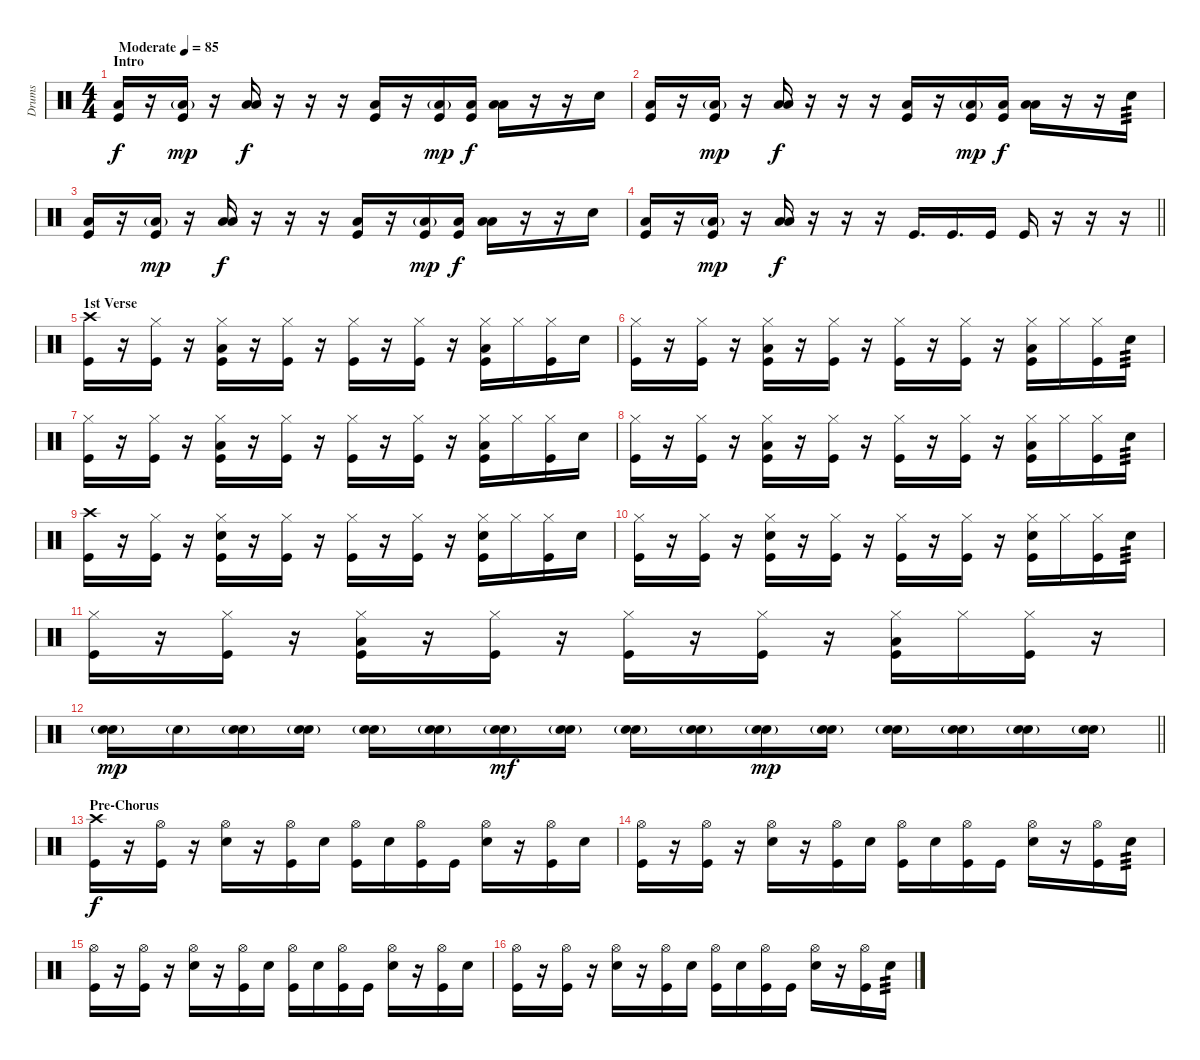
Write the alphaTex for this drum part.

\track ("Drums" "Drums") {instrument percussion}
\staff {score}
\articulation defaults
\ts (4 4)
\section ("" "Intro")
\tempo (85 "Moderate")
\clef neutral
\ks c
("Low Floor Tom (hit)" "Kick (hit)").16{dy f} r.16 ("Low Floor Tom (hit)"{g} "Kick (hit)").16{dy mp} r.16 ("Low Tom (hit)" "Low Floor Tom (hit)").16{dy f} r.16 r.16 r.16 ("Low Floor Tom (hit)" "Kick (hit)").16 r.16 ("Low Floor Tom (hit)"{g} "Kick (hit)").16{dy mp} ("Low Floor Tom (hit)" "Kick (hit)").16{dy f} ("Low Tom (hit)" "Low Floor Tom (hit)").16 r.16 r.16 "Snare (hit) 2".16 |
("Low Floor Tom (hit)" "Kick (hit)").16 r.16 ("Low Floor Tom (hit)"{g} "Kick (hit)").16{dy mp} r.16 ("Low Tom (hit)" "Low Floor Tom (hit)").16{dy f} r.16 r.16 r.16 ("Low Floor Tom (hit)" "Kick (hit)").16 r.16 ("Low Floor Tom (hit)"{g} "Kick (hit)").16{dy mp} ("Low Floor Tom (hit)" "Kick (hit)").16{dy f} ("Low Tom (hit)" "Low Floor Tom (hit)").16 r.16 r.16 "Snare (hit) 2".16{tp 3} |
("Low Floor Tom (hit)" "Kick (hit)").16 r.16 ("Low Floor Tom (hit)"{g} "Kick (hit)").16{dy mp} r.16 ("Low Tom (hit)" "Low Floor Tom (hit)").16{dy f} r.16 r.16 r.16 ("Low Floor Tom (hit)" "Kick (hit)").16 r.16 ("Low Floor Tom (hit)"{g} "Kick (hit)").16{dy mp} ("Low Floor Tom (hit)" "Kick (hit)").16{dy f} ("Low Tom (hit)" "Low Floor Tom (hit)").16 r.16 r.16 "Snare (hit) 2".16 |
\barLineRight lightlight
("Low Floor Tom (hit)" "Kick (hit)").16 r.16 ("Low Floor Tom (hit)"{g} "Kick (hit)").16{dy mp} r.16 ("Low Tom (hit)" "Low Floor Tom (hit)").16{dy f} r.16 r.16 r.16 "Kick (hit)".16{d} "Kick (hit)".16{d} "Kick (hit)".16 "Kick (hit)".16 r.16 r.16 r.16 |
\section ("" "1st Verse")
("Crash high (hit)" "Kick (hit)").16 r.16 ("Hi-Hat (closed)" "Kick (hit)").16 r.16 ("Hi-Hat (closed)" "Low Tom (hit)" "Kick (hit)").16 r.16 ("Hi-Hat (closed)" "Kick (hit)").16 r.16 ("Hi-Hat (closed)" "Kick (hit)").16 r.16 ("Hi-Hat (closed)" "Kick (hit)").16 r.16 ("Hi-Hat (closed)" "Low Tom (hit)" "Kick (hit)").16 "Hi-Hat (closed)".16 ("Hi-Hat (closed)" "Kick (hit)").16 "Snare (hit) 2".16 |
("Hi-Hat (closed)" "Kick (hit)").16 r.16 ("Hi-Hat (closed)" "Kick (hit)").16 r.16 ("Hi-Hat (closed)" "Low Tom (hit)" "Kick (hit)").16 r.16 ("Hi-Hat (closed)" "Kick (hit)").16 r.16 ("Hi-Hat (closed)" "Kick (hit)").16 r.16 ("Hi-Hat (closed)" "Kick (hit)").16 r.16 ("Hi-Hat (closed)" "Low Tom (hit)" "Kick (hit)").16 "Hi-Hat (closed)".16 ("Hi-Hat (closed)" "Kick (hit)").16 "Snare (hit) 2".16{tp 3} |
("Hi-Hat (closed)" "Kick (hit)").16 r.16 ("Hi-Hat (closed)" "Kick (hit)").16 r.16 ("Hi-Hat (closed)" "Low Tom (hit)" "Kick (hit)").16 r.16 ("Hi-Hat (closed)" "Kick (hit)").16 r.16 ("Hi-Hat (closed)" "Kick (hit)").16 r.16 ("Hi-Hat (closed)" "Kick (hit)").16 r.16 ("Hi-Hat (closed)" "Low Tom (hit)" "Kick (hit)").16 "Hi-Hat (closed)".16 ("Hi-Hat (closed)" "Kick (hit)").16 "Snare (hit) 2".16 |
("Hi-Hat (closed)" "Kick (hit)").16 r.16 ("Hi-Hat (closed)" "Kick (hit)").16 r.16 ("Hi-Hat (closed)" "Low Tom (hit)" "Kick (hit)").16 r.16 ("Hi-Hat (closed)" "Kick (hit)").16 r.16 ("Hi-Hat (closed)" "Kick (hit)").16 r.16 ("Hi-Hat (closed)" "Kick (hit)").16 r.16 ("Hi-Hat (closed)" "Low Tom (hit)" "Kick (hit)").16 "Hi-Hat (closed)".16 ("Hi-Hat (closed)" "Kick (hit)").16 "Snare (hit) 2".16{tp 3} |
("Crash high (hit)" "Kick (hit)").16 r.16 ("Hi-Hat (closed)" "Kick (hit)").16 r.16 ("Hi-Hat (closed)" "Snare (hit) 2" "Kick (hit)").16 r.16 ("Hi-Hat (closed)" "Kick (hit)").16 r.16 ("Hi-Hat (closed)" "Kick (hit)").16 r.16 ("Hi-Hat (closed)" "Kick (hit)").16 r.16 ("Hi-Hat (closed)" "Snare (hit) 2" "Kick (hit)").16 "Hi-Hat (closed)".16 ("Hi-Hat (closed)" "Kick (hit)").16 "Snare (hit) 2".16 |
("Hi-Hat (closed)" "Kick (hit)").16 r.16 ("Hi-Hat (closed)" "Kick (hit)").16 r.16 ("Hi-Hat (closed)" "Snare (hit) 2" "Kick (hit)").16 r.16 ("Hi-Hat (closed)" "Kick (hit)").16 r.16 ("Hi-Hat (closed)" "Kick (hit)").16 r.16 ("Hi-Hat (closed)" "Kick (hit)").16 r.16 ("Hi-Hat (closed)" "Snare (hit) 2" "Kick (hit)").16 "Hi-Hat (closed)".16 ("Hi-Hat (closed)" "Kick (hit)").16 "Snare (hit) 2".16{tp 3} |
("Hi-Hat (closed)" "Kick (hit)").16 r.16 ("Hi-Hat (closed)" "Kick (hit)").16 r.16 ("Hi-Hat (closed)" "Low Tom (hit)" "Kick (hit)").16 r.16 ("Hi-Hat (closed)" "Kick (hit)").16 r.16 ("Hi-Hat (closed)" "Kick (hit)").16 r.16 ("Hi-Hat (closed)" "Kick (hit)").16 r.16 ("Hi-Hat (closed)" "Low Tom (hit)" "Kick (hit)").16 "Hi-Hat (closed)".16 ("Hi-Hat (closed)" "Kick (hit)").16 r.16 |
\barLineRight lightlight
("Snare (hit) 2"{g} "Snare (hit) 2").16{dy mp} "Snare (hit) 2"{g}.16 ("Snare (hit) 2"{g} "Snare (hit) 2").16 ("Snare (hit) 2"{g} "Snare (hit) 2").16 ("Snare (hit) 2"{g} "Snare (hit) 2").16 ("Snare (hit) 2"{g} "Snare (hit) 2").16 ("Snare (hit) 2"{g} "Snare (hit) 2").16{dy mf} ("Snare (hit) 2"{g} "Snare (hit) 2").16 ("Snare (hit) 2"{g} "Snare (hit) 2").16 ("Snare (hit) 2"{g} "Snare (hit) 2").16 ("Snare (hit) 2"{g} "Snare (hit) 2").16{dy mp} ("Snare (hit) 2"{g} "Snare (hit) 2").16 ("Snare (hit) 2"{g} "Snare (hit) 2").16 ("Snare (hit) 2"{g} "Snare (hit) 2").16 ("Snare (hit) 2"{g} "Snare (hit) 2").16 ("Snare (hit) 2"{g} "Snare (hit) 2").16 |
\section ("" "Pre-Chorus")
("Crash high (hit)" "Kick (hit)").16{dy f} r.16 ("Hi-Hat (open)" "Kick (hit)").16 r.16 ("Hi-Hat (open)" "Snare (hit) 2").16 r.16 ("Hi-Hat (open)" "Kick (hit)").16 "Snare (hit) 2".16 ("Hi-Hat (open)" "Kick (hit)").16 "Snare (hit) 2".16 ("Hi-Hat (open)" "Kick (hit)").16 "Kick (hit)".16 ("Hi-Hat (open)" "Snare (hit) 2").16 r.16 ("Hi-Hat (open)" "Kick (hit)").16 "Snare (hit) 2".16 |
("Hi-Hat (open)" "Kick (hit)").16 r.16 ("Hi-Hat (open)" "Kick (hit)").16 r.16 ("Hi-Hat (open)" "Snare (hit) 2").16 r.16 ("Hi-Hat (open)" "Kick (hit)").16 "Snare (hit) 2".16 ("Hi-Hat (open)" "Kick (hit)").16 "Snare (hit) 2".16 ("Hi-Hat (open)" "Kick (hit)").16 "Kick (hit)".16 ("Hi-Hat (open)" "Snare (hit) 2").16 r.16 ("Hi-Hat (open)" "Kick (hit)").16 "Snare (hit) 2".16{tp 3} |
("Hi-Hat (open)" "Kick (hit)").16 r.16 ("Hi-Hat (open)" "Kick (hit)").16 r.16 ("Hi-Hat (open)" "Snare (hit) 2").16 r.16 ("Hi-Hat (open)" "Kick (hit)").16 "Snare (hit) 2".16 ("Hi-Hat (open)" "Kick (hit)").16 "Snare (hit) 2".16 ("Hi-Hat (open)" "Kick (hit)").16 "Kick (hit)".16 ("Hi-Hat (open)" "Snare (hit) 2").16 r.16 ("Hi-Hat (open)" "Kick (hit)").16 "Snare (hit) 2".16 |
("Hi-Hat (open)" "Kick (hit)").16 r.16 ("Hi-Hat (open)" "Kick (hit)").16 r.16 ("Hi-Hat (open)" "Snare (hit) 2").16 r.16 ("Hi-Hat (open)" "Kick (hit)").16 "Snare (hit) 2".16 ("Hi-Hat (open)" "Kick (hit)").16 "Snare (hit) 2".16 ("Hi-Hat (open)" "Kick (hit)").16 "Kick (hit)".16 ("Hi-Hat (open)" "Snare (hit) 2").16 r.16 ("Hi-Hat (open)" "Kick (hit)").16 "Snare (hit) 2".16{tp 3}
